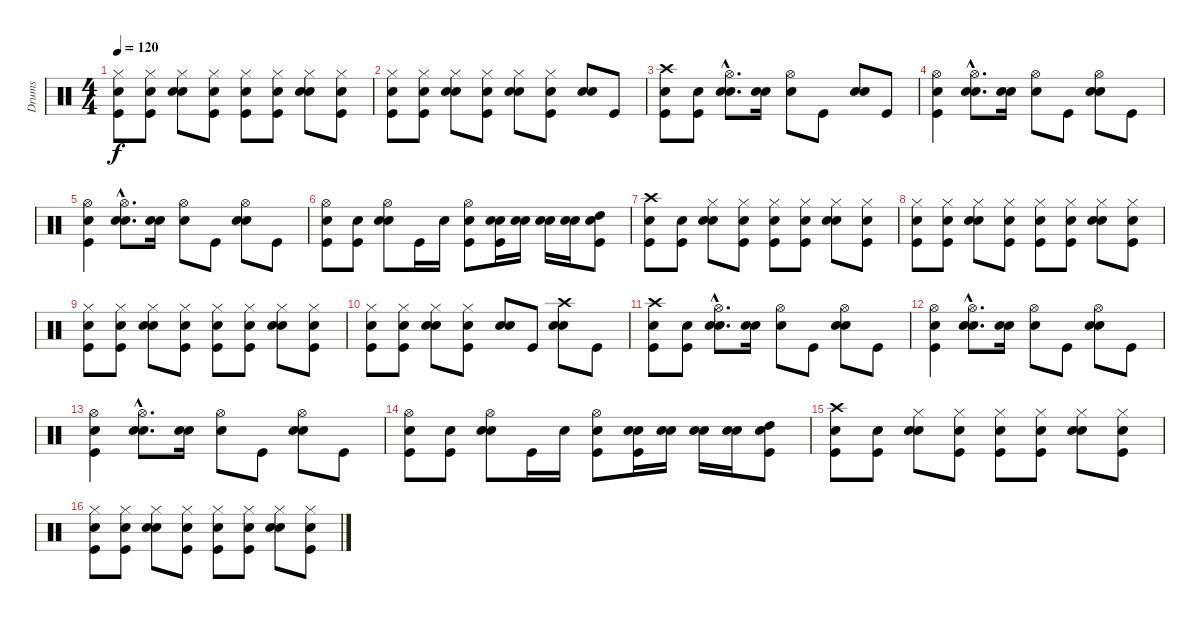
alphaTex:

\track ("Drums" "Drums") {instrument percussion}
\staff {score}
\articulation defaults
\ts (4 4)
\tempo 120
\clef neutral
\ks c
("Snare (hit)" "Kick (hit)" "Hi-Hat (closed)").8{dy f} ("Snare (hit)" "Kick (hit)" "Hi-Hat (closed)").8 ("Snare (hit)" "Electric Snare (hit)" "Hi-Hat (closed)").8 ("Snare (hit)" "Kick (hit)" "Hi-Hat (closed)").8 ("Snare (hit)" "Kick (hit)" "Hi-Hat (closed)").8 ("Snare (hit)" "Kick (hit)" "Hi-Hat (closed)").8 ("Snare (hit)" "Electric Snare (hit)" "Hi-Hat (closed)").8 ("Snare (hit)" "Kick (hit)" "Hi-Hat (closed)").8 |
("Snare (hit)" "Kick (hit)" "Hi-Hat (closed)").8 ("Snare (hit)" "Kick (hit)" "Hi-Hat (closed)").8 ("Snare (hit)" "Electric Snare (hit)" "Hi-Hat (closed)").8 ("Snare (hit)" "Kick (hit)" "Hi-Hat (closed)").8 ("Snare (hit)" "Electric Snare (hit)" "Hi-Hat (closed)").8 ("Snare (hit)" "Kick (hit)" "Hi-Hat (closed)").8 ("Snare (hit)" "Electric Snare (hit)").8 "Kick (hit)".8 |
("Snare (hit)" "Kick (hit)" "Crash high (hit)").8 ("Snare (hit)" "Kick (hit)").8 ("Snare (hit)"{hac} "Electric Snare (hit)"{hac} "Hi-Hat (open)"{hac}).8{d} ("Snare (hit)" "Electric Snare (hit)").16 ("Snare (hit)" "Hi-Hat (open)").8 "Kick (hit)".8 ("Snare (hit)" "Electric Snare (hit)").8 "Kick (hit)".8 |
("Snare (hit)" "Kick (hit)" "Hi-Hat (open)").4 ("Snare (hit)"{hac} "Electric Snare (hit)"{hac} "Hi-Hat (open)"{hac}).8{d} ("Snare (hit)" "Electric Snare (hit)").16 ("Snare (hit)" "Hi-Hat (open)").8 "Kick (hit)".8 ("Snare (hit)" "Electric Snare (hit)" "Hi-Hat (open)").8 "Kick (hit)".8 |
("Snare (hit)" "Kick (hit)" "Hi-Hat (open)").4 ("Snare (hit)"{hac} "Electric Snare (hit)"{hac} "Hi-Hat (open)"{hac}).8{d} ("Snare (hit)" "Electric Snare (hit)").16 ("Snare (hit)" "Hi-Hat (open)").8 "Kick (hit)".8 ("Snare (hit)" "Electric Snare (hit)" "Hi-Hat (open)").8 "Kick (hit)".8 |
("Snare (hit)" "Kick (hit)" "Hi-Hat (open)").8 ("Snare (hit)" "Kick (hit)").8 ("Snare (hit)" "Electric Snare (hit)" "Hi-Hat (open)").8 "Kick (hit)".16 "Electric Snare (hit)".16 ("Snare (hit)" "Kick (hit)" "Hi-Hat (open)").8 ("Snare (hit)" "Kick (hit)" "Electric Snare (hit)").16 ("Snare (hit)" "Electric Snare (hit)").16 ("Snare (hit)" "Electric Snare (hit)").16 ("Snare (hit)" "Electric Snare (hit)").16 ("Snare (hit)" "Kick (hit)" "High Tom (hit)").8 |
("Snare (hit)" "Kick (hit)" "Crash high (hit)").8 ("Snare (hit)" "Kick (hit)").8 ("Snare (hit)" "Electric Snare (hit)" "Hi-Hat (closed)").8 ("Snare (hit)" "Kick (hit)" "Hi-Hat (closed)").8 ("Snare (hit)" "Kick (hit)" "Hi-Hat (closed)").8 ("Snare (hit)" "Kick (hit)" "Hi-Hat (closed)").8 ("Snare (hit)" "Electric Snare (hit)" "Hi-Hat (closed)").8 ("Snare (hit)" "Kick (hit)" "Hi-Hat (closed)").8 |
("Snare (hit)" "Kick (hit)" "Hi-Hat (closed)").8 ("Snare (hit)" "Kick (hit)" "Hi-Hat (closed)").8 ("Snare (hit)" "Electric Snare (hit)" "Hi-Hat (closed)").8 ("Snare (hit)" "Kick (hit)" "Hi-Hat (closed)").8 ("Snare (hit)" "Kick (hit)" "Hi-Hat (closed)").8 ("Snare (hit)" "Kick (hit)" "Hi-Hat (closed)").8 ("Snare (hit)" "Electric Snare (hit)" "Hi-Hat (closed)").8 ("Snare (hit)" "Kick (hit)" "Hi-Hat (closed)").8 |
("Snare (hit)" "Kick (hit)" "Hi-Hat (closed)").8 ("Snare (hit)" "Kick (hit)" "Hi-Hat (closed)").8 ("Snare (hit)" "Electric Snare (hit)" "Hi-Hat (closed)").8 ("Snare (hit)" "Kick (hit)" "Hi-Hat (closed)").8 ("Snare (hit)" "Kick (hit)" "Hi-Hat (closed)").8 ("Snare (hit)" "Kick (hit)" "Hi-Hat (closed)").8 ("Snare (hit)" "Electric Snare (hit)" "Hi-Hat (closed)").8 ("Snare (hit)" "Kick (hit)" "Hi-Hat (closed)").8 |
("Snare (hit)" "Kick (hit)" "Hi-Hat (closed)").8 ("Snare (hit)" "Kick (hit)" "Hi-Hat (closed)").8 ("Snare (hit)" "Electric Snare (hit)" "Hi-Hat (closed)").8 ("Snare (hit)" "Kick (hit)" "Hi-Hat (closed)").8 ("Snare (hit)" "Electric Snare (hit)").8 "Kick (hit)".8 ("Snare (hit)" "Electric Snare (hit)" "Crash high (hit)").8 "Kick (hit)".8 |
("Snare (hit)" "Kick (hit)" "Crash high (hit)").8 ("Snare (hit)" "Kick (hit)").8 ("Snare (hit)"{hac} "Electric Snare (hit)"{hac} "Hi-Hat (open)"{hac}).8{d} ("Snare (hit)" "Electric Snare (hit)").16 ("Snare (hit)" "Hi-Hat (open)").8 "Kick (hit)".8 ("Snare (hit)" "Electric Snare (hit)" "Hi-Hat (open)").8 "Kick (hit)".8 |
("Snare (hit)" "Kick (hit)" "Hi-Hat (open)").4 ("Snare (hit)"{hac} "Electric Snare (hit)"{hac} "Hi-Hat (open)"{hac}).8{d} ("Snare (hit)" "Electric Snare (hit)").16 ("Snare (hit)" "Hi-Hat (open)").8 "Kick (hit)".8 ("Snare (hit)" "Electric Snare (hit)" "Hi-Hat (open)").8 "Kick (hit)".8 |
("Snare (hit)" "Kick (hit)" "Hi-Hat (open)").4 ("Snare (hit)"{hac} "Electric Snare (hit)"{hac} "Hi-Hat (open)"{hac}).8{d} ("Snare (hit)" "Electric Snare (hit)").16 ("Snare (hit)" "Hi-Hat (open)").8 "Kick (hit)".8 ("Snare (hit)" "Electric Snare (hit)" "Hi-Hat (open)").8 "Kick (hit)".8 |
("Snare (hit)" "Kick (hit)" "Hi-Hat (open)").8 ("Snare (hit)" "Kick (hit)").8 ("Snare (hit)" "Electric Snare (hit)" "Hi-Hat (open)").8 "Kick (hit)".16 "Electric Snare (hit)".16 ("Snare (hit)" "Kick (hit)" "Hi-Hat (open)").8 ("Snare (hit)" "Kick (hit)" "Electric Snare (hit)").16 ("Snare (hit)" "Electric Snare (hit)").16 ("Snare (hit)" "Electric Snare (hit)").16 ("Snare (hit)" "Electric Snare (hit)").16 ("Snare (hit)" "Kick (hit)" "High Tom (hit)").8 |
("Snare (hit)" "Kick (hit)" "Crash high (hit)").8 ("Snare (hit)" "Kick (hit)").8 ("Snare (hit)" "Electric Snare (hit)" "Hi-Hat (closed)").8 ("Snare (hit)" "Kick (hit)" "Hi-Hat (closed)").8 ("Snare (hit)" "Kick (hit)" "Hi-Hat (closed)").8 ("Snare (hit)" "Kick (hit)" "Hi-Hat (closed)").8 ("Snare (hit)" "Electric Snare (hit)" "Hi-Hat (closed)").8 ("Snare (hit)" "Kick (hit)" "Hi-Hat (closed)").8 |
("Snare (hit)" "Kick (hit)" "Hi-Hat (closed)").8 ("Snare (hit)" "Kick (hit)" "Hi-Hat (closed)").8 ("Snare (hit)" "Electric Snare (hit)" "Hi-Hat (closed)").8 ("Snare (hit)" "Kick (hit)" "Hi-Hat (closed)").8 ("Snare (hit)" "Kick (hit)" "Hi-Hat (closed)").8 ("Snare (hit)" "Kick (hit)" "Hi-Hat (closed)").8 ("Snare (hit)" "Electric Snare (hit)" "Hi-Hat (closed)").8 ("Snare (hit)" "Kick (hit)" "Hi-Hat (closed)").8
